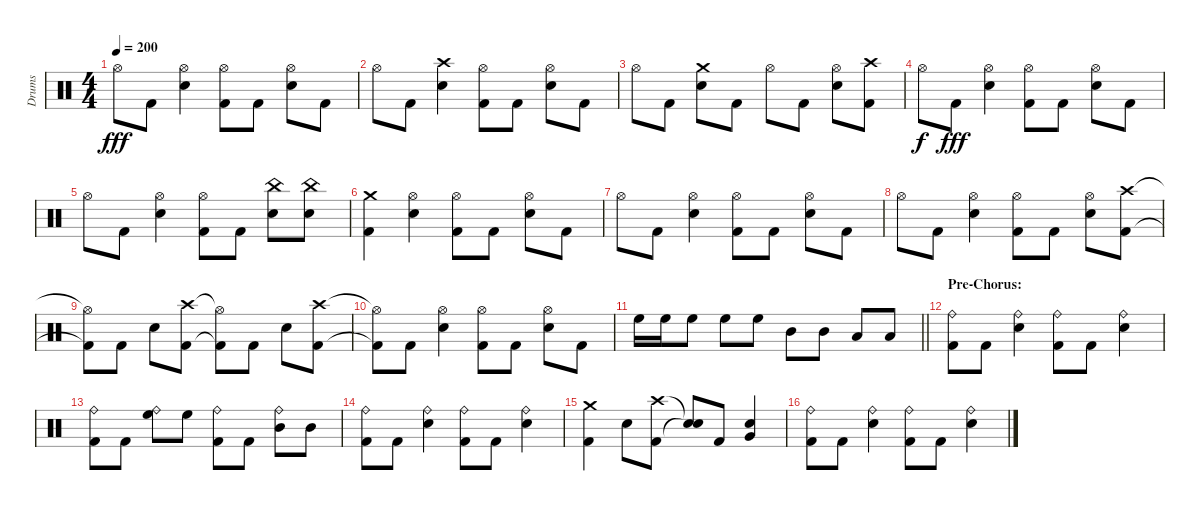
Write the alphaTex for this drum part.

\track ("Drums" "Drums") {instrument percussion}
\staff {score}
\articulation defaults
\ts (4 4)
\tempo 200
\clef neutral
\ks c "Hi-Hat (open)".8{dy fff} "Kick (hit) 2".8
("Hi-Hat (open)" "Electric Snare (hit)").4 ("Hi-Hat (open)" "Kick (hit) 2").8 "Kick (hit) 2".8 ("Hi-Hat (open)" "Electric Snare (hit)").8 "Kick (hit) 2".8 |
"Hi-Hat (open)".8 "Kick (hit) 2".8 ("Crash high (hit)" "Electric Snare (hit)").4 ("Hi-Hat (open)" "Kick (hit) 2").8 "Kick (hit) 2".8 ("Hi-Hat (open)" "Electric Snare (hit)").8 "Kick (hit) 2".8 |
"Hi-Hat (open)".8 "Kick (hit) 2".8 ("Crash medium (hit)" "Electric Snare (hit)").8 "Kick (hit) 2".8 "Hi-Hat (open)".8 "Kick (hit) 2".8 ("Hi-Hat (open)" "Electric Snare (hit)").8 ("Crash high (hit)" "Kick (hit) 2").8 |
"Hi-Hat (open)".8{dy f} "Kick (hit) 2".8{dy fff} ("Hi-Hat (open)" "Electric Snare (hit)").4 ("Hi-Hat (open)" "Kick (hit) 2").8 "Kick (hit) 2".8 ("Hi-Hat (open)" "Electric Snare (hit)").8 "Kick (hit) 2".8 |
"Hi-Hat (open)".8 "Kick (hit) 2".8 ("Hi-Hat (open)" "Electric Snare (hit)").4 ("Hi-Hat (open)" "Kick (hit) 2").8 "Kick (hit) 2".8 ("China (hit)" "Electric Snare (hit)").8 ("China (hit)" "Electric Snare (hit)").8 |
("Crash medium (hit)" "Kick (hit) 2").4 ("Hi-Hat (open)" "Electric Snare (hit)").4 ("Hi-Hat (open)" "Kick (hit) 2").8 "Kick (hit) 2".8 ("Hi-Hat (open)" "Electric Snare (hit)").8 "Kick (hit) 2".8 |
"Hi-Hat (open)".8 "Kick (hit) 2".8 ("Hi-Hat (open)" "Electric Snare (hit)").4 ("Hi-Hat (open)" "Kick (hit) 2").8 "Kick (hit) 2".8 ("Hi-Hat (open)" "Electric Snare (hit)").8 "Kick (hit) 2".8 |
"Hi-Hat (open)".8 "Kick (hit) 2".8 ("Hi-Hat (open)" "Electric Snare (hit)").4 ("Hi-Hat (open)" "Kick (hit) 2").8 "Kick (hit) 2".8 ("Hi-Hat (open)" "Electric Snare (hit)").8 ("Crash high (hit)" "Kick (hit) 2").8 |
("Hi-Hat (open)"{t} "Kick (hit) 2"{t}).8 "Kick (hit) 2".8 "Electric Snare (hit)".8 ("Crash high (hit)" "Kick (hit) 2").8 ("Hi-Hat (open)"{t} "Kick (hit) 2"{t}).8 "Kick (hit) 2".8 "Electric Snare (hit)".8 ("Crash high (hit)" "Kick (hit) 2").8 |
("Hi-Hat (open)"{t} "Kick (hit) 2"{t}).8 "Kick (hit) 2".8 ("Hi-Hat (open)" "Electric Snare (hit)").4 ("Hi-Hat (open)" "Kick (hit) 2").8 "Kick (hit) 2".8 ("Hi-Hat (open)" "Electric Snare (hit)").8 "Kick (hit) 2".8 |
\barLineRight lightlight "High Floor Tom (hit)".16 "High Floor Tom (hit)".16 "High Floor Tom (hit)".8 "High Floor Tom (hit)".8 "High Floor Tom (hit)".8 "Mid Tom (hit)".8 "Mid Tom (hit)".8 "Low Tom (hit)".8 "Low Tom (hit)".8
|
\section ("" "Pre-Chorus:")
("Ride (bell)" "Kick (hit) 2").8 "Kick (hit) 2".8 ("Ride (bell)" "Electric Snare (hit)").4 ("Ride (bell)" "Kick (hit) 2").8 "Kick (hit) 2".8 ("Ride (bell)" "Electric Snare (hit)").4 |
("Ride (bell)" "Kick (hit) 2").8 "Kick (hit) 2".8 ("Ride (bell)" "High Floor Tom (hit)").8 "High Floor Tom (hit)".8 ("Ride (bell)" "Kick (hit) 2").8 "Kick (hit) 2".8 ("Ride (bell)" "Mid Tom (hit)").8 "Mid Tom (hit)".8 |
("Ride (bell)" "Kick (hit) 2").8 "Kick (hit) 2".8 ("Ride (bell)" "Electric Snare (hit)").4 ("Ride (bell)" "Kick (hit) 2").8 "Kick (hit) 2".8 ("Ride (bell)" "Electric Snare (hit)").4 |
("Crash medium (hit)" "Kick (hit) 2").4 "Electric Snare (hit)".8 ("Crash high (hit)" "Kick (hit) 2").8 ("Snare (hit)"{t} "Snare (hit)"{t}).8 "Kick (hit) 2".8 ("Electric Snare (hit)" "Very Low Tom (hit)").4 |
("Ride (bell)" "Kick (hit) 2").8 "Kick (hit) 2".8 ("Ride (bell)" "Electric Snare (hit)").4 ("Ride (bell)" "Kick (hit) 2").8 "Kick (hit) 2".8 ("Ride (bell)" "Electric Snare (hit)").4
